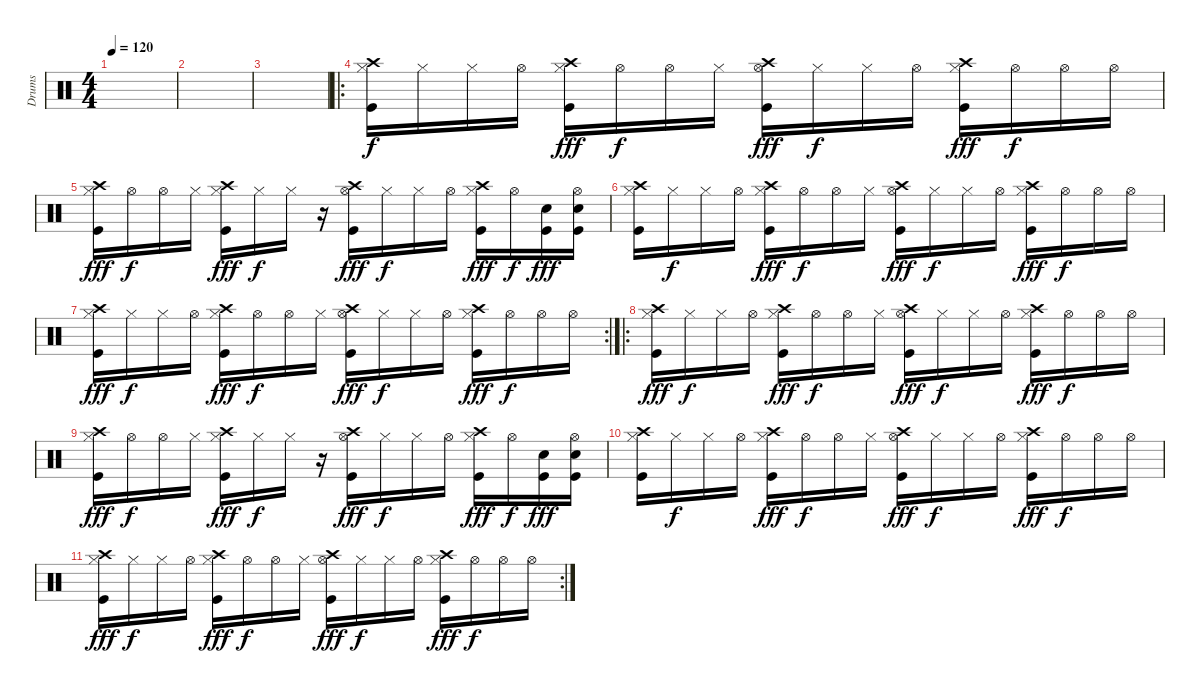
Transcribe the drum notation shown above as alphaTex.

\track ("Drums" "Drums") {instrument percussion}
\staff {score}
\articulation defaults
\ts (4 4)
\tempo 120
\clef neutral
\ks c
|
|
|
\ro
("Crash high (hit)" "Hi-Hat (closed)" "Kick (hit)").16 "Hi-Hat (closed)".16{dy f} "Hi-Hat (closed)".16 "Hi-Hat (open)".16 ("Crash high (hit)" "Hi-Hat (closed)" "Kick (hit)").16{dy fff} "Hi-Hat (open)".16{dy f} "Hi-Hat (open)".16 "Hi-Hat (closed)".16 ("Crash high (hit)" "Hi-Hat (open)" "Kick (hit)").16{dy fff} "Hi-Hat (closed)".16{dy f} "Hi-Hat (closed)".16 "Hi-Hat (open)".16 ("Crash high (hit)" "Hi-Hat (closed)" "Kick (hit)").16{dy fff} "Hi-Hat (open)".16{dy f} "Hi-Hat (open)".16 "Hi-Hat (open)".16 |
("Crash high (hit)" "Hi-Hat (closed)" "Kick (hit)").16{dy fff} "Hi-Hat (open)".16{dy f} "Hi-Hat (open)".16 "Hi-Hat (closed)".16 ("Crash high (hit)" "Hi-Hat (closed)" "Kick (hit)").16{dy fff} "Hi-Hat (closed)".16{dy f} "Hi-Hat (closed)".16 r.16 ("Crash high (hit)" "Hi-Hat (open)" "Kick (hit)").16{dy fff} "Hi-Hat (closed)".16{dy f} "Hi-Hat (closed)".16 "Hi-Hat (open)".16 ("Crash high (hit)" "Hi-Hat (closed)" "Kick (hit)").16{dy fff} "Hi-Hat (open)".16{dy f} ("Electric Snare (hit)" "Kick (hit)").16{dy fff} ("Hi-Hat (open)" "Electric Snare (hit)" "Kick (hit)").16 |
("Crash high (hit)" "Hi-Hat (closed)" "Kick (hit)").16 "Hi-Hat (closed)".16{dy f} "Hi-Hat (closed)".16 "Hi-Hat (open)".16 ("Crash high (hit)" "Hi-Hat (closed)" "Kick (hit)").16{dy fff} "Hi-Hat (open)".16{dy f} "Hi-Hat (open)".16 "Hi-Hat (closed)".16 ("Crash high (hit)" "Hi-Hat (open)" "Kick (hit)").16{dy fff} "Hi-Hat (closed)".16{dy f} "Hi-Hat (closed)".16 "Hi-Hat (open)".16 ("Crash high (hit)" "Hi-Hat (closed)" "Kick (hit)").16{dy fff} "Hi-Hat (open)".16{dy f} "Hi-Hat (open)".16 "Hi-Hat (open)".16 |
\rc 2
("Crash high (hit)" "Hi-Hat (closed)" "Kick (hit)").16{dy fff} "Hi-Hat (closed)".16{dy f} "Hi-Hat (closed)".16 "Hi-Hat (open)".16 ("Crash high (hit)" "Hi-Hat (closed)" "Kick (hit)").16{dy fff} "Hi-Hat (open)".16{dy f} "Hi-Hat (open)".16 "Hi-Hat (closed)".16 ("Crash high (hit)" "Hi-Hat (open)" "Kick (hit)").16{dy fff} "Hi-Hat (closed)".16{dy f} "Hi-Hat (closed)".16 "Hi-Hat (open)".16 ("Crash high (hit)" "Hi-Hat (closed)" "Kick (hit)").16{dy fff} "Hi-Hat (open)".16{dy f} "Hi-Hat (open)".16 "Hi-Hat (open)".16 |
\ro
("Crash high (hit)" "Hi-Hat (closed)" "Kick (hit)").16{dy fff} "Hi-Hat (closed)".16{dy f} "Hi-Hat (closed)".16 "Hi-Hat (open)".16 ("Crash high (hit)" "Hi-Hat (closed)" "Kick (hit)").16{dy fff} "Hi-Hat (open)".16{dy f} "Hi-Hat (open)".16 "Hi-Hat (closed)".16 ("Crash high (hit)" "Hi-Hat (open)" "Kick (hit)").16{dy fff} "Hi-Hat (closed)".16{dy f} "Hi-Hat (closed)".16 "Hi-Hat (open)".16 ("Crash high (hit)" "Hi-Hat (closed)" "Kick (hit)").16{dy fff} "Hi-Hat (open)".16{dy f} "Hi-Hat (open)".16 "Hi-Hat (open)".16 |
("Crash high (hit)" "Hi-Hat (closed)" "Kick (hit)").16{dy fff} "Hi-Hat (open)".16{dy f} "Hi-Hat (open)".16 "Hi-Hat (closed)".16 ("Crash high (hit)" "Hi-Hat (closed)" "Kick (hit)").16{dy fff} "Hi-Hat (closed)".16{dy f} "Hi-Hat (closed)".16 r.16 ("Crash high (hit)" "Hi-Hat (open)" "Kick (hit)").16{dy fff} "Hi-Hat (closed)".16{dy f} "Hi-Hat (closed)".16 "Hi-Hat (open)".16 ("Crash high (hit)" "Hi-Hat (closed)" "Kick (hit)").16{dy fff} "Hi-Hat (open)".16{dy f} ("Electric Snare (hit)" "Kick (hit)").16{dy fff} ("Hi-Hat (open)" "Electric Snare (hit)" "Kick (hit)").16 |
("Crash high (hit)" "Hi-Hat (closed)" "Kick (hit)").16 "Hi-Hat (closed)".16{dy f} "Hi-Hat (closed)".16 "Hi-Hat (open)".16 ("Crash high (hit)" "Hi-Hat (closed)" "Kick (hit)").16{dy fff} "Hi-Hat (open)".16{dy f} "Hi-Hat (open)".16 "Hi-Hat (closed)".16 ("Crash high (hit)" "Hi-Hat (open)" "Kick (hit)").16{dy fff} "Hi-Hat (closed)".16{dy f} "Hi-Hat (closed)".16 "Hi-Hat (open)".16 ("Crash high (hit)" "Hi-Hat (closed)" "Kick (hit)").16{dy fff} "Hi-Hat (open)".16{dy f} "Hi-Hat (open)".16 "Hi-Hat (open)".16 |
\rc 2
("Crash high (hit)" "Hi-Hat (closed)" "Kick (hit)").16{dy fff} "Hi-Hat (closed)".16{dy f} "Hi-Hat (closed)".16 "Hi-Hat (open)".16 ("Crash high (hit)" "Hi-Hat (closed)" "Kick (hit)").16{dy fff} "Hi-Hat (open)".16{dy f} "Hi-Hat (open)".16 "Hi-Hat (closed)".16 ("Crash high (hit)" "Hi-Hat (open)" "Kick (hit)").16{dy fff} "Hi-Hat (closed)".16{dy f} "Hi-Hat (closed)".16 "Hi-Hat (open)".16 ("Crash high (hit)" "Hi-Hat (closed)" "Kick (hit)").16{dy fff} "Hi-Hat (open)".16{dy f} "Hi-Hat (open)".16 "Hi-Hat (open)".16
